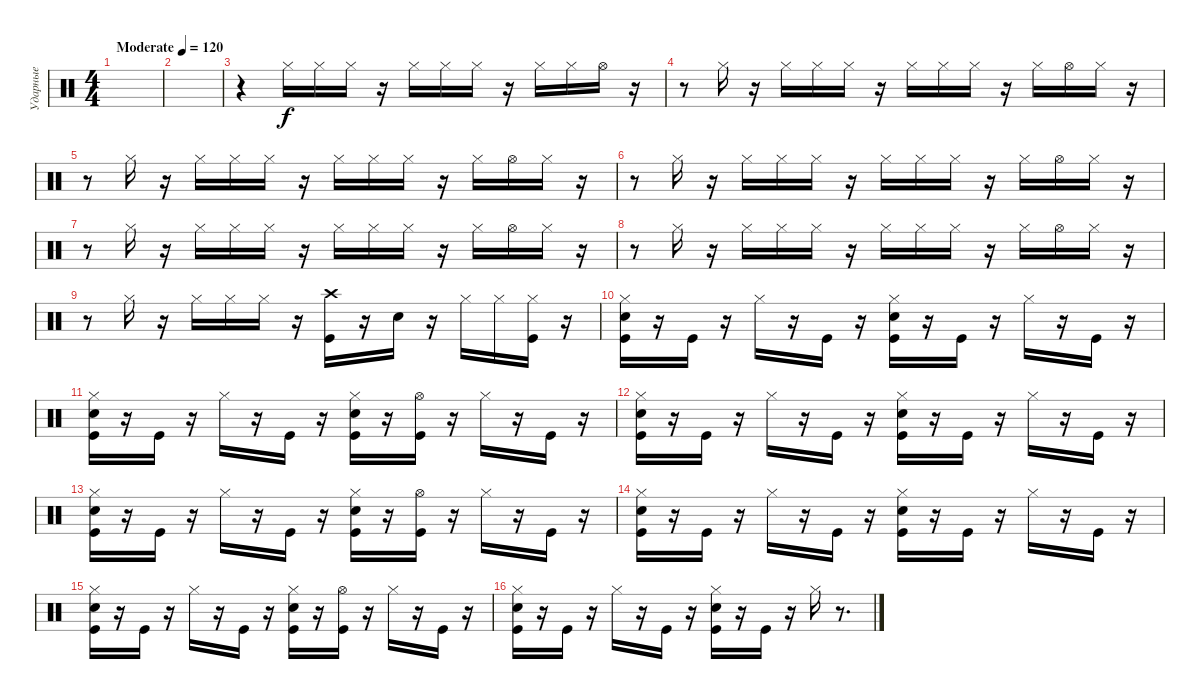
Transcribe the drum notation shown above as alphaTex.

\track ("Ударные" "Ударные") {instrument percussion}
\staff {score}
\articulation defaults
\ts (4 4)
\tempo (120 "Moderate")
\clef neutral
\ks c
|
|
r.4 "Hi-Hat (closed)".16 "Hi-Hat (closed)".16 "Hi-Hat (closed)".16 r.16 "Hi-Hat (closed)".16 "Hi-Hat (closed)".16 "Hi-Hat (closed)".16 r.16 "Hi-Hat (closed)".16 "Hi-Hat (closed)".16 "Hi-Hat (open)".16 r.16 |
r.8 "Hi-Hat (closed)".16 r.16 "Hi-Hat (closed)".16 "Hi-Hat (closed)".16 "Hi-Hat (closed)".16 r.16 "Hi-Hat (closed)".16 "Hi-Hat (closed)".16 "Hi-Hat (closed)".16 r.16 "Hi-Hat (closed)".16 "Hi-Hat (open)".16 "Hi-Hat (closed)".16 r.16 |
r.8 "Hi-Hat (closed)".16 r.16 "Hi-Hat (closed)".16 "Hi-Hat (closed)".16 "Hi-Hat (closed)".16 r.16 "Hi-Hat (closed)".16 "Hi-Hat (closed)".16 "Hi-Hat (closed)".16 r.16 "Hi-Hat (closed)".16 "Hi-Hat (open)".16 "Hi-Hat (closed)".16 r.16 |
r.8 "Hi-Hat (closed)".16 r.16 "Hi-Hat (closed)".16 "Hi-Hat (closed)".16 "Hi-Hat (closed)".16 r.16 "Hi-Hat (closed)".16 "Hi-Hat (closed)".16 "Hi-Hat (closed)".16 r.16 "Hi-Hat (closed)".16 "Hi-Hat (open)".16 "Hi-Hat (closed)".16 r.16 |
r.8 "Hi-Hat (closed)".16 r.16 "Hi-Hat (closed)".16 "Hi-Hat (closed)".16 "Hi-Hat (closed)".16 r.16 "Hi-Hat (closed)".16 "Hi-Hat (closed)".16 "Hi-Hat (closed)".16 r.16 "Hi-Hat (closed)".16 "Hi-Hat (open)".16 "Hi-Hat (closed)".16 r.16 |
r.8 "Hi-Hat (closed)".16 r.16 "Hi-Hat (closed)".16 "Hi-Hat (closed)".16 "Hi-Hat (closed)".16 r.16 "Hi-Hat (closed)".16 "Hi-Hat (closed)".16 "Hi-Hat (closed)".16 r.16 "Hi-Hat (closed)".16 "Hi-Hat (open)".16 "Hi-Hat (closed)".16 r.16 |
r.8 "Hi-Hat (closed)".16 r.16 "Hi-Hat (closed)".16 "Hi-Hat (closed)".16 "Hi-Hat (closed)".16 r.16 ("Kick (hit)" "Crash high (hit)").16 r.16 "Snare (hit) 2".16 r.16 "Hi-Hat (closed)".16 "Hi-Hat (closed)".16 ("Kick (hit)" "Hi-Hat (closed)").16 r.16 |
("Hi-Hat (closed)" "Snare (hit) 2" "Kick (hit)").16 r.16 "Kick (hit)".16 r.16 "Hi-Hat (closed)".16 r.16 "Kick (hit)".16 r.16 ("Hi-Hat (closed)" "Snare (hit) 2" "Kick (hit)").16 r.16 "Kick (hit)".16 r.16 "Hi-Hat (closed)".16 r.16 "Kick (hit)".16 r.16 |
("Hi-Hat (closed)" "Snare (hit) 2" "Kick (hit)").16 r.16 "Kick (hit)".16 r.16 "Hi-Hat (closed)".16 r.16 "Kick (hit)".16 r.16 ("Hi-Hat (closed)" "Snare (hit) 2" "Kick (hit)").16 r.16 ("Hi-Hat (open)" "Kick (hit)").16 r.16 "Hi-Hat (closed)".16 r.16 "Kick (hit)".16 r.16 |
("Hi-Hat (closed)" "Snare (hit) 2" "Kick (hit)").16 r.16 "Kick (hit)".16 r.16 "Hi-Hat (closed)".16 r.16 "Kick (hit)".16 r.16 ("Hi-Hat (closed)" "Snare (hit) 2" "Kick (hit)").16 r.16 "Kick (hit)".16 r.16 "Hi-Hat (closed)".16 r.16 "Kick (hit)".16 r.16 |
("Hi-Hat (closed)" "Snare (hit) 2" "Kick (hit)").16 r.16 "Kick (hit)".16 r.16 "Hi-Hat (closed)".16 r.16 "Kick (hit)".16 r.16 ("Hi-Hat (closed)" "Snare (hit) 2" "Kick (hit)").16 r.16 ("Hi-Hat (open)" "Kick (hit)").16 r.16 "Hi-Hat (closed)".16 r.16 "Kick (hit)".16 r.16 |
("Hi-Hat (closed)" "Snare (hit) 2" "Kick (hit)").16 r.16 "Kick (hit)".16 r.16 "Hi-Hat (closed)".16 r.16 "Kick (hit)".16 r.16 ("Hi-Hat (closed)" "Snare (hit) 2" "Kick (hit)").16 r.16 "Kick (hit)".16 r.16 "Hi-Hat (closed)".16 r.16 "Kick (hit)".16 r.16 |
("Hi-Hat (closed)" "Snare (hit) 2" "Kick (hit)").16 r.16 "Kick (hit)".16 r.16 "Hi-Hat (closed)".16 r.16 "Kick (hit)".16 r.16 ("Hi-Hat (closed)" "Snare (hit) 2" "Kick (hit)").16 r.16 ("Hi-Hat (open)" "Kick (hit)").16 r.16 "Hi-Hat (closed)".16 r.16 "Kick (hit)".16 r.16 |
("Hi-Hat (closed)" "Snare (hit) 2" "Kick (hit)").16 r.16 "Kick (hit)".16 r.16 "Hi-Hat (closed)".16 r.16 "Kick (hit)".16 r.16 ("Hi-Hat (closed)" "Snare (hit) 2" "Kick (hit)").16 r.16 "Kick (hit)".16 r.16 "Hi-Hat (closed)".16 r.8{d}
